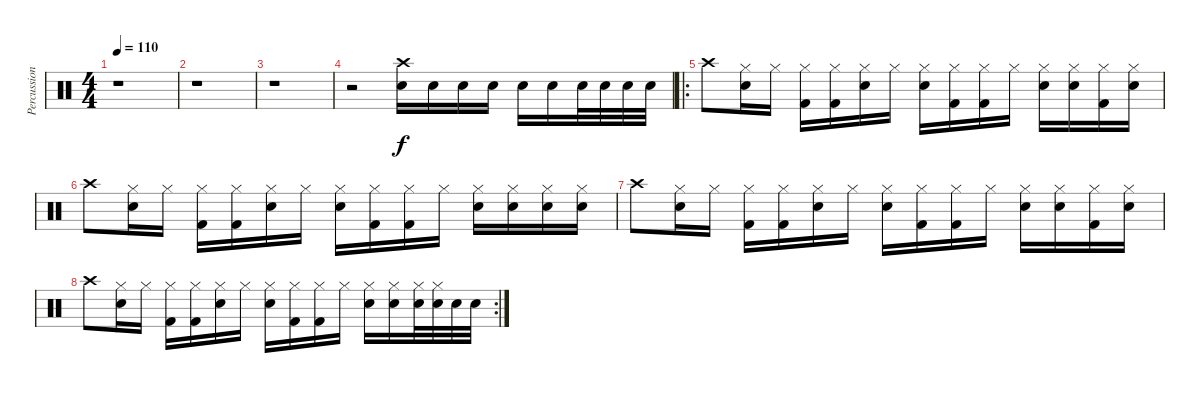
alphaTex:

\track ("Percussion" "Percussion") {instrument percussion}
\staff {score}
\articulation defaults
\ts (4 4)
\tempo 110
\clef neutral
\ks c
r.1{dy f} |
r.1 |
r.1 |
r.2 ("Crash high (hit)" "Electric Snare (hit)").16 "Electric Snare (hit)".16 "Electric Snare (hit)".16 "Electric Snare (hit)".16 "Electric Snare (hit)".16 "Electric Snare (hit)".16 "Electric Snare (hit)".32 "Electric Snare (hit)".32 "Electric Snare (hit)".32 "Electric Snare (hit)".32 |
\ro "Crash high (hit)".8
("Hi-Hat (closed)" "Electric Snare (hit)").16 "Hi-Hat (closed)".16 ("Hi-Hat (closed)" "Kick (hit) 2").16 ("Hi-Hat (closed)" "Kick (hit) 2").16 ("Hi-Hat (closed)" "Electric Snare (hit)").16 "Hi-Hat (closed)".16 ("Hi-Hat (closed)" "Electric Snare (hit)").16 ("Hi-Hat (closed)" "Kick (hit) 2").16 ("Hi-Hat (closed)" "Kick (hit) 2").16 "Hi-Hat (closed)".16 ("Hi-Hat (closed)" "Electric Snare (hit)").16 ("Hi-Hat (closed)" "Electric Snare (hit)").16 ("Hi-Hat (closed)" "Kick (hit) 2").16 ("Hi-Hat (closed)" "Electric Snare (hit)").16 |
"Crash high (hit)".8 ("Hi-Hat (closed)" "Electric Snare (hit)").16 "Hi-Hat (closed)".16 ("Hi-Hat (closed)" "Kick (hit) 2").16 ("Hi-Hat (closed)" "Kick (hit) 2").16 ("Hi-Hat (closed)" "Electric Snare (hit)").16 "Hi-Hat (closed)".16 ("Hi-Hat (closed)" "Electric Snare (hit)").16 ("Hi-Hat (closed)" "Kick (hit) 2").16 ("Hi-Hat (closed)" "Kick (hit) 2").16 "Hi-Hat (closed)".16 ("Hi-Hat (closed)" "Electric Snare (hit)").16 ("Hi-Hat (closed)" "Electric Snare (hit)").16 ("Hi-Hat (closed)" "Electric Snare (hit)").16 ("Hi-Hat (closed)" "Electric Snare (hit)").16 |
"Crash high (hit)".8 ("Hi-Hat (closed)" "Electric Snare (hit)").16 "Hi-Hat (closed)".16 ("Hi-Hat (closed)" "Kick (hit) 2").16 ("Hi-Hat (closed)" "Kick (hit) 2").16 ("Hi-Hat (closed)" "Electric Snare (hit)").16 "Hi-Hat (closed)".16 ("Hi-Hat (closed)" "Electric Snare (hit)").16 ("Hi-Hat (closed)" "Kick (hit) 2").16 ("Hi-Hat (closed)" "Kick (hit) 2").16 "Hi-Hat (closed)".16 ("Hi-Hat (closed)" "Electric Snare (hit)").16 ("Hi-Hat (closed)" "Electric Snare (hit)").16 ("Hi-Hat (closed)" "Kick (hit) 2").16 ("Hi-Hat (closed)" "Electric Snare (hit)").16 |
\rc 2 "Crash high (hit)".8
("Hi-Hat (closed)" "Electric Snare (hit)").16 "Hi-Hat (closed)".16 ("Hi-Hat (closed)" "Kick (hit) 2").16 ("Hi-Hat (closed)" "Kick (hit) 2").16 ("Hi-Hat (closed)" "Electric Snare (hit)").16 "Hi-Hat (closed)".16 ("Hi-Hat (closed)" "Electric Snare (hit)").16 ("Hi-Hat (closed)" "Kick (hit) 2").16 ("Hi-Hat (closed)" "Kick (hit) 2").16 "Hi-Hat (closed)".16 ("Hi-Hat (closed)" "Electric Snare (hit)").16 ("Hi-Hat (closed)" "Electric Snare (hit)").16 ("Hi-Hat (closed)" "Electric Snare (hit)").32 ("Hi-Hat (closed)" "Electric Snare (hit)").32 "Electric Snare (hit)".32 "Electric Snare (hit)".32
